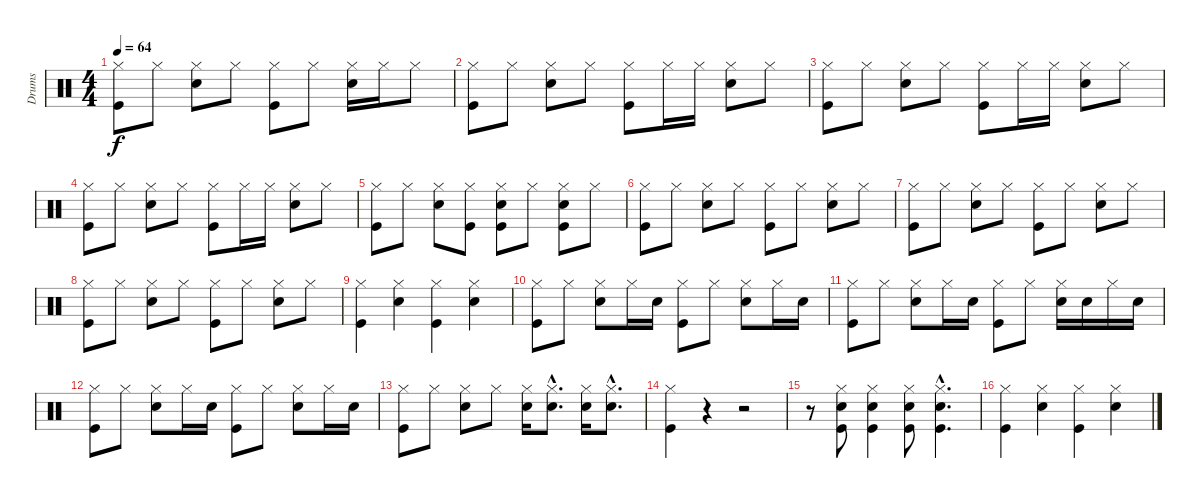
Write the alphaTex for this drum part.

\track ("Drums" "Drums") {instrument percussion}
\staff {score}
\articulation defaults
\ts (4 4)
\tempo 64
\clef neutral
\ks c
("Hi-Hat (closed)" "Kick (hit)").8{dy f} "Hi-Hat (closed)".8 ("Hi-Hat (closed)" "Snare (hit) 2").8 "Hi-Hat (closed)".8 ("Hi-Hat (closed)" "Kick (hit)").8 "Hi-Hat (closed)".8 ("Hi-Hat (closed)" "Snare (hit) 2").16 "Hi-Hat (closed)".16 "Hi-Hat (closed)".8 |
("Hi-Hat (closed)" "Kick (hit)").8 "Hi-Hat (closed)".8 ("Hi-Hat (closed)" "Snare (hit) 2").8 "Hi-Hat (closed)".8 ("Hi-Hat (closed)" "Kick (hit)").8 "Hi-Hat (closed)".16 "Hi-Hat (closed)".16 ("Hi-Hat (closed)" "Snare (hit) 2").8 "Hi-Hat (closed)".8 |
("Hi-Hat (closed)" "Kick (hit)").8 "Hi-Hat (closed)".8 ("Hi-Hat (closed)" "Snare (hit) 2").8 "Hi-Hat (closed)".8 ("Hi-Hat (closed)" "Kick (hit)").8 "Hi-Hat (closed)".16 "Hi-Hat (closed)".16 ("Hi-Hat (closed)" "Snare (hit) 2").8 "Hi-Hat (closed)".8 |
("Hi-Hat (closed)" "Kick (hit)").8 "Hi-Hat (closed)".8 ("Hi-Hat (closed)" "Snare (hit) 2").8 "Hi-Hat (closed)".8 ("Hi-Hat (closed)" "Kick (hit)").8 "Hi-Hat (closed)".16 "Hi-Hat (closed)".16 ("Hi-Hat (closed)" "Snare (hit) 2").8 "Hi-Hat (closed)".8 |
("Hi-Hat (closed)" "Kick (hit)").8 "Hi-Hat (closed)".8 ("Hi-Hat (closed)" "Snare (hit) 2").8 ("Hi-Hat (closed)" "Kick (hit)").8 ("Hi-Hat (closed)" "Snare (hit) 2" "Kick (hit)").8 "Hi-Hat (closed)".8 ("Hi-Hat (closed)" "Snare (hit) 2" "Kick (hit)").8 "Hi-Hat (closed)".8 |
("Hi-Hat (closed)" "Kick (hit)").8 "Hi-Hat (closed)".8 ("Hi-Hat (closed)" "Snare (hit) 2").8 "Hi-Hat (closed)".8 ("Hi-Hat (closed)" "Kick (hit)").8 "Hi-Hat (closed)".8 ("Hi-Hat (closed)" "Snare (hit) 2").8 "Hi-Hat (closed)".8 |
("Hi-Hat (closed)" "Kick (hit)").8 "Hi-Hat (closed)".8 ("Hi-Hat (closed)" "Snare (hit) 2").8 "Hi-Hat (closed)".8 ("Hi-Hat (closed)" "Kick (hit)").8 "Hi-Hat (closed)".8 ("Hi-Hat (closed)" "Snare (hit) 2").8 "Hi-Hat (closed)".8 |
("Hi-Hat (closed)" "Kick (hit)").8 "Hi-Hat (closed)".8 ("Hi-Hat (closed)" "Snare (hit) 2").8 "Hi-Hat (closed)".8 ("Hi-Hat (closed)" "Kick (hit)").8 "Hi-Hat (closed)".8 ("Hi-Hat (closed)" "Snare (hit) 2").8 "Hi-Hat (closed)".8 |
("Hi-Hat (closed)" "Kick (hit)").4 ("Hi-Hat (closed)" "Snare (hit) 2").4 ("Hi-Hat (closed)" "Kick (hit)").4 ("Hi-Hat (closed)" "Snare (hit) 2").4 |
("Hi-Hat (closed)" "Kick (hit)").8 "Hi-Hat (closed)".8 ("Hi-Hat (closed)" "Snare (hit) 2").8 "Hi-Hat (closed)".16 "Snare (hit) 2".16 ("Hi-Hat (closed)" "Kick (hit)").8 "Hi-Hat (closed)".8 ("Hi-Hat (closed)" "Snare (hit) 2").8 "Hi-Hat (closed)".16 "Snare (hit) 2".16 |
("Hi-Hat (closed)" "Kick (hit)").8 "Hi-Hat (closed)".8 ("Hi-Hat (closed)" "Snare (hit) 2").8 "Hi-Hat (closed)".16 "Snare (hit) 2".16 ("Hi-Hat (closed)" "Kick (hit)").8 "Hi-Hat (closed)".8 ("Hi-Hat (closed)" "Snare (hit) 2").16 "Snare (hit) 2".16 "Hi-Hat (closed)".16 "Snare (hit) 2".16 |
("Hi-Hat (closed)" "Kick (hit)").8 "Hi-Hat (closed)".8 ("Hi-Hat (closed)" "Snare (hit) 2").8 "Hi-Hat (closed)".16 "Snare (hit) 2".16 ("Hi-Hat (closed)" "Kick (hit)").8 "Hi-Hat (closed)".8 ("Hi-Hat (closed)" "Snare (hit) 2").8 "Hi-Hat (closed)".16 "Snare (hit) 2".16 |
("Hi-Hat (closed)" "Kick (hit)").8 "Hi-Hat (closed)".8 ("Hi-Hat (closed)" "Snare (hit) 2").8 "Hi-Hat (closed)".8 ("Hi-Hat (closed)" "Snare (hit) 2").16 ("Hi-Hat (closed)"{hac} "Snare (hit) 2"{hac}).8{d} ("Hi-Hat (closed)" "Snare (hit) 2").16 ("Hi-Hat (closed)"{hac} "Snare (hit) 2"{hac}).8{d} |
("Hi-Hat (closed)" "Kick (hit)").4 r.4 r.2 |
r.8 ("Hi-Hat (closed)" "Snare (hit) 2" "Kick (hit)").8 ("Hi-Hat (closed)" "Snare (hit) 2" "Kick (hit)").4 ("Hi-Hat (closed)" "Snare (hit) 2" "Kick (hit)").8 ("Hi-Hat (closed)"{hac} "Snare (hit) 2"{hac} "Kick (hit)"{hac}).4{d} |
("Hi-Hat (closed)" "Kick (hit)").4 ("Hi-Hat (closed)" "Snare (hit) 2").4 ("Hi-Hat (closed)" "Kick (hit)").4 ("Hi-Hat (closed)" "Snare (hit) 2").4
